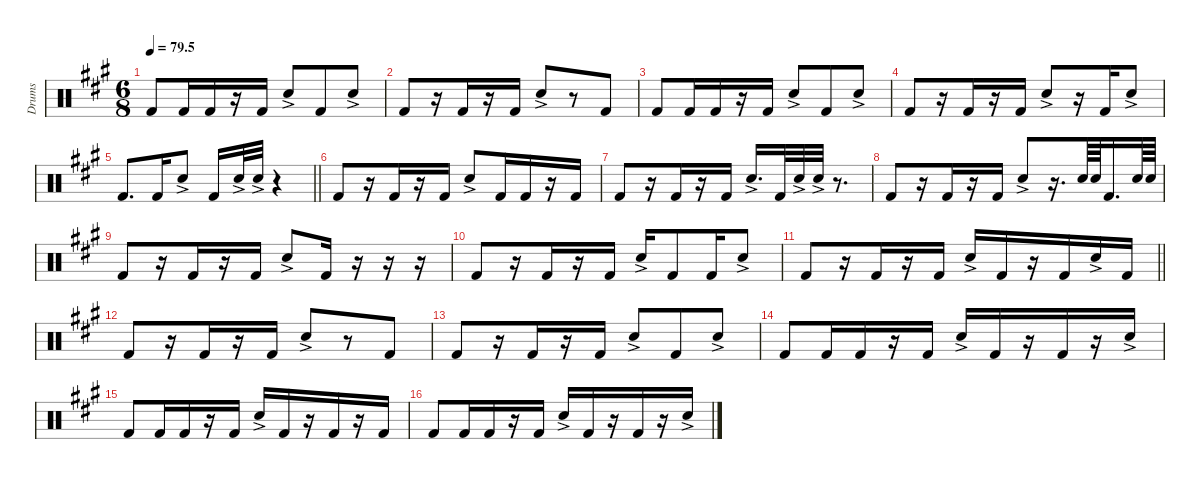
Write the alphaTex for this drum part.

\defaultSystemsLayout 4
\hideDynamics
\bracketExtendMode nobrackets
\otherSystemsTrackNameOrientation horizontal
\track ("F&S" "Drums") {instrument percussion}
\staff {score}
\articulation defaults
\ts (6 8)
\tempo
79.5
\accidentals auto
\clef neutral
\ottava regular
\simile none
\scale
0.333333
\ks a "Kick (hit) 2"{acc forcenatural}.8{dy f} "Kick (hit) 2"{acc forcenatural}.16 "Kick (hit) 2"{acc forcenatural}.16
r.16 "Kick (hit) 2"{acc forcenatural}.16 "Snare (hit) 2"{ac acc forcenatural}.8 "Kick (hit) 2"{acc forcenatural}.8 "Snare (hit) 2"{ac acc forcenatural}.8 |
\scale
0.333333 "Kick (hit) 2"{acc forcenatural}.8 r.16 "Kick (hit) 2"{acc forcenatural}.16 r.16 "Kick (hit) 2"{acc forcenatural}.16 "Snare (hit) 2"{ac acc forcenatural}.8 r.8 "Kick (hit) 2"{acc forcenatural}.8 |
\scale
0.333333 "Kick (hit) 2"{acc forcenatural}.8 "Kick (hit) 2"{acc forcenatural}.16 "Kick (hit) 2"{acc forcenatural}.16 r.16 "Kick (hit) 2"{acc forcenatural}.16 "Snare (hit) 2"{ac acc forcenatural}.8 "Kick (hit) 2"{acc forcenatural}.8 "Snare (hit) 2"{ac acc forcenatural}.8 |
\scale
0.333333 "Kick (hit) 2"{acc forcenatural}.8 r.16 "Kick (hit) 2"{acc forcenatural}.16 r.16 "Kick (hit) 2"{acc forcenatural}.16 "Snare (hit) 2"{ac acc forcenatural}.8 r.16 "Kick (hit) 2"{acc forcenatural}.16 "Snare (hit) 2"{ac acc forcenatural}.8 |
\scale
0.333333
\barLineRight lightlight "Kick (hit) 2"{acc forcenatural}.8{d} "Kick (hit) 2"{acc forcenatural}.16 "Snare (hit) 2"{ac acc forcenatural}.8 "Kick (hit) 2"{acc forcenatural}.16 "Snare (hit) 2"{ac acc forcenatural}.32 "Snare (hit) 2"{ac acc forcenatural}.32
r.4 |
\scale
0.333333 "Kick (hit) 2"{acc forcenatural}.8 r.16 "Kick (hit) 2"{acc forcenatural}.16 r.16 "Kick (hit) 2"{acc forcenatural}.16 "Snare (hit) 2"{ac acc forcenatural}.8 "Kick (hit) 2"{acc forcenatural}.16 "Kick (hit) 2"{acc forcenatural}.16 r.16 "Kick (hit) 2"{acc forcenatural}.16 |
\scale
0.333333 "Kick (hit) 2"{acc forcenatural}.8 r.16 "Kick (hit) 2"{acc forcenatural}.16 r.16 "Kick (hit) 2"{acc forcenatural}.16 "Snare (hit) 2"{ac acc forcenatural}.16{d} "Kick (hit) 2"{acc forcenatural}.32 "Snare (hit) 2"{ac acc forcenatural}.32 "Snare (hit) 2"{ac acc forcenatural}.32 r.8{d} |
\scale
0.333333 "Kick (hit) 2"{acc forcenatural}.8 r.16 "Kick (hit) 2"{acc forcenatural}.16 r.16 "Kick (hit) 2"{acc forcenatural}.16 "Snare (hit) 2"{ac acc forcenatural}.8 r.16{d} "Snare (hit) 2"{acc forcenatural}.64 "Snare (hit) 2"{acc forcenatural}.64 "Kick (hit) 2"{acc forcenatural}.16{d} "Snare (hit) 2"{acc forcenatural}.64 "Snare (hit) 2"{acc forcenatural}.64 |
\scale
0.333333 "Kick (hit) 2"{acc forcenatural}.8 r.16 "Kick (hit) 2"{acc forcenatural}.16 r.16 "Kick (hit) 2"{acc forcenatural}.16 "Snare (hit) 2"{ac acc forcenatural}.8 "Kick (hit) 2"{acc forcenatural}.16 r.16 r.16 r.16 |
\scale
0.333333 "Kick (hit) 2"{acc forcenatural}.8 r.16 "Kick (hit) 2"{acc forcenatural}.16 r.16 "Kick (hit) 2"{acc forcenatural}.16 "Snare (hit) 2"{ac acc forcenatural}.16 "Kick (hit) 2"{acc forcenatural}.8 "Kick (hit) 2"{acc forcenatural}.16 "Snare (hit) 2"{ac acc forcenatural}.8 |
\scale
0.333333
\barLineRight lightlight "Kick (hit) 2"{acc forcenatural}.8
r.16 "Kick (hit) 2"{acc forcenatural}.16 r.16 "Kick (hit) 2"{acc forcenatural}.16 "Snare (hit) 2"{ac acc forcenatural}.16 "Kick (hit) 2"{acc forcenatural}.16 r.16 "Kick (hit) 2"{acc forcenatural}.16 "Snare (hit) 2"{ac acc forcenatural}.16 "Kick (hit) 2"{acc forcenatural}.16 |
\scale
0.333333 "Kick (hit) 2"{acc forcenatural}.8 r.16 "Kick (hit) 2"{acc forcenatural}.16 r.16 "Kick (hit) 2"{acc forcenatural}.16 "Snare (hit) 2"{ac acc forcenatural}.8 r.8 "Kick (hit) 2"{acc forcenatural}.8 |
\scale
0.333333 "Kick (hit) 2"{acc forcenatural}.8 r.16 "Kick (hit) 2"{acc forcenatural}.16 r.16 "Kick (hit) 2"{acc forcenatural}.16 "Snare (hit) 2"{ac acc forcenatural}.8 "Kick (hit) 2"{acc forcenatural}.8 "Snare (hit) 2"{ac acc forcenatural}.8 |
\scale
0.333333 "Kick (hit) 2"{acc forcenatural}.8 "Kick (hit) 2"{acc forcenatural}.16 "Kick (hit) 2"{acc forcenatural}.16 r.16 "Kick (hit) 2"{acc forcenatural}.16 "Snare (hit) 2"{ac acc forcenatural}.16 "Kick (hit) 2"{acc forcenatural}.16 r.16 "Kick (hit) 2"{acc forcenatural}.16 r.16 "Snare (hit) 2"{ac acc forcenatural}.16 |
\scale
0.333333 "Kick (hit) 2"{acc forcenatural}.8 "Kick (hit) 2"{acc forcenatural}.16 "Kick (hit) 2"{acc forcenatural}.16 r.16 "Kick (hit) 2"{acc forcenatural}.16 "Snare (hit) 2"{ac acc forcenatural}.16 "Kick (hit) 2"{acc forcenatural}.16 r.16 "Kick (hit) 2"{acc forcenatural}.16 r.16 "Kick (hit) 2"{acc forcenatural}.16 |
\scale
0.333333 "Kick (hit) 2"{acc forcenatural}.8 "Kick (hit) 2"{acc forcenatural}.16 "Kick (hit) 2"{acc forcenatural}.16 r.16 "Kick (hit) 2"{acc forcenatural}.16 "Snare (hit) 2"{ac acc forcenatural}.16 "Kick (hit) 2"{acc forcenatural}.16 r.16 "Kick (hit) 2"{acc forcenatural}.16 r.16 "Snare (hit) 2"{ac acc forcenatural}.16
